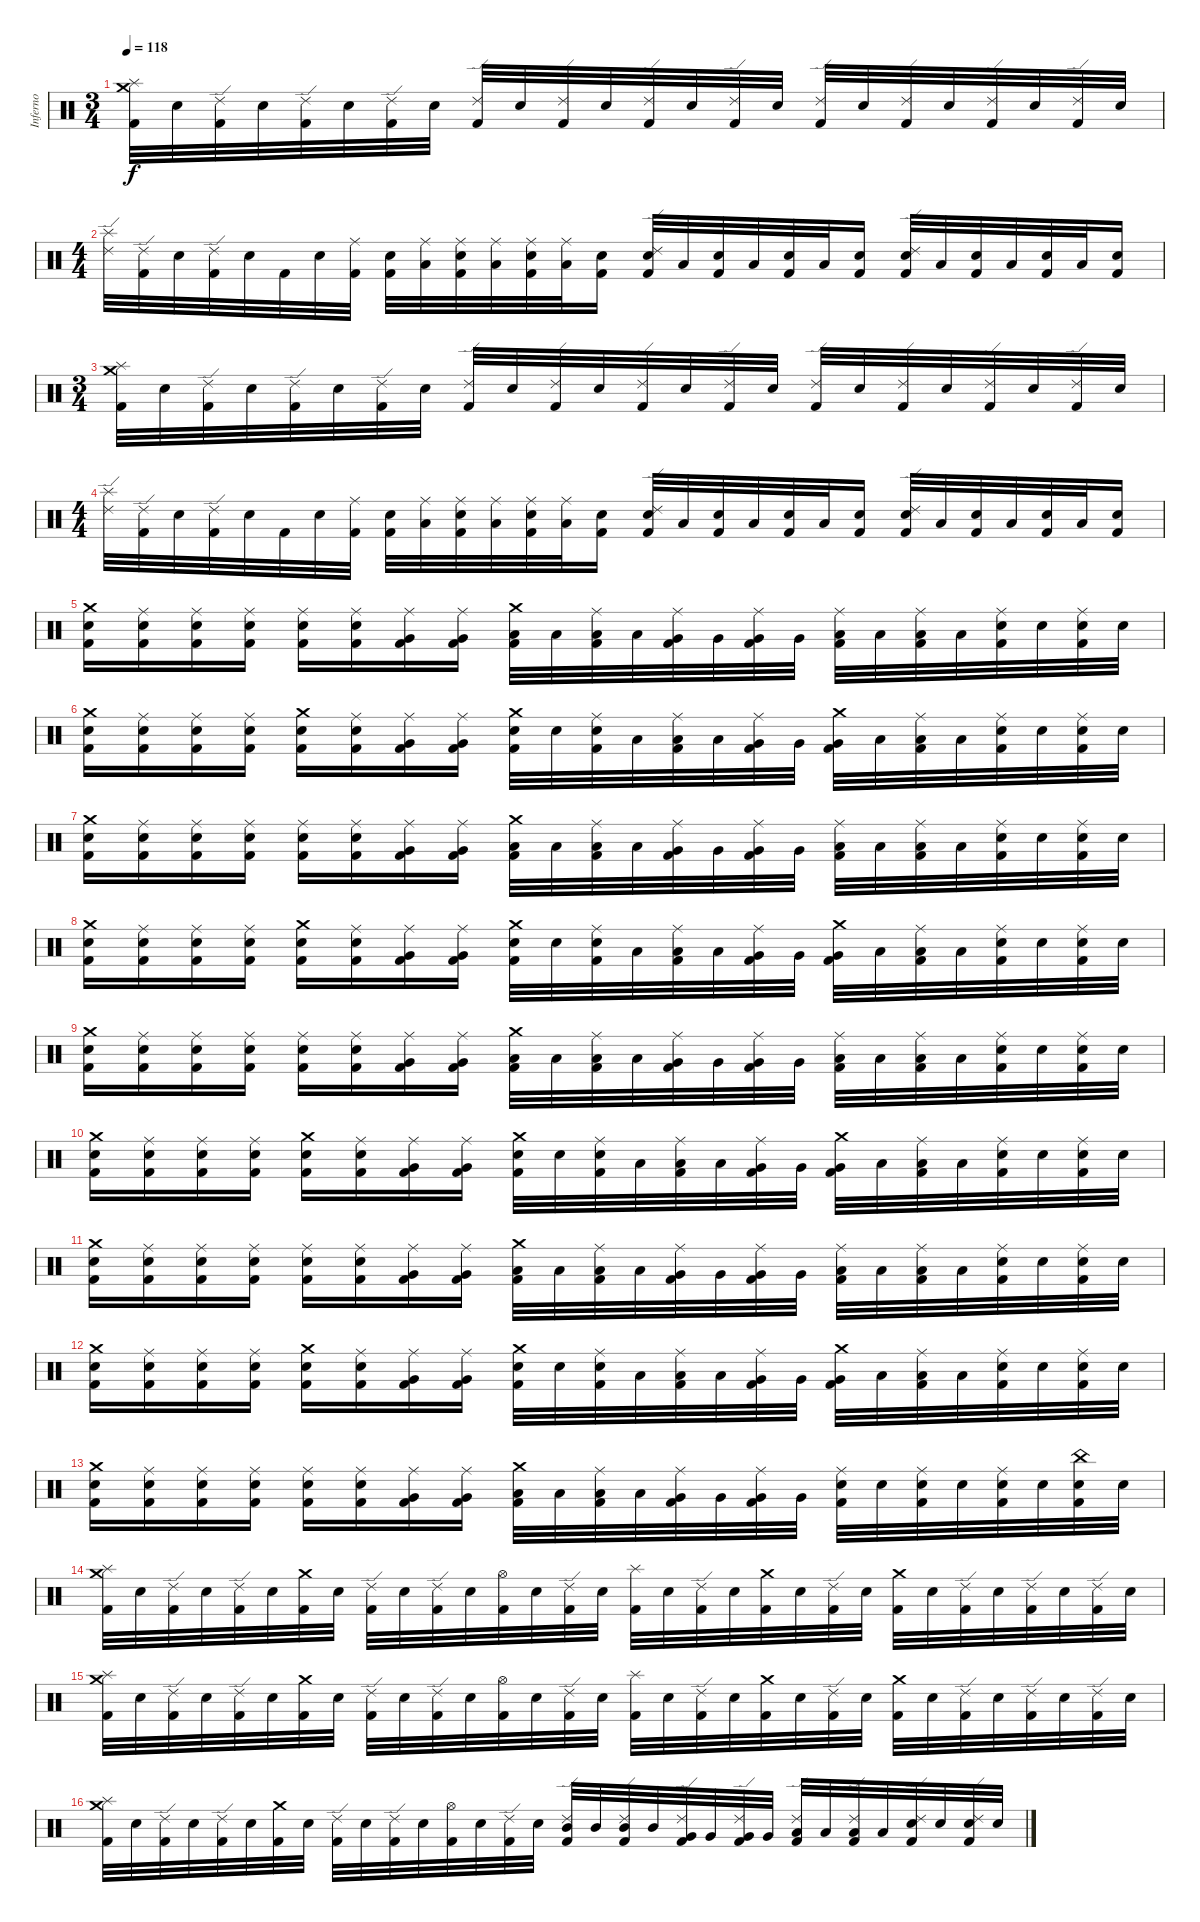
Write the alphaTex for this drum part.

\track ("Inferno" "Inferno") {instrument percussion}
\staff {score}
\articulation defaults
\ts (3 4)
\tempo 118
\clef neutral
\ks c
("Crash medium (hit)" "Splash (hit)" "Kick (hit) 2").32{dy f} "Electric Snare (hit)".32 ("Ride (edge) 2" "Kick (hit) 2").32 "Electric Snare (hit)".32 ("Ride (edge) 2" "Kick (hit) 2").32 "Electric Snare (hit)".32 ("Ride (edge) 2" "Kick (hit) 2").32 "Electric Snare (hit)".32 ("Ride (edge) 2" "Kick (hit) 2").32 "Electric Snare (hit)".32 ("Ride (edge) 2" "Kick (hit) 2").32 "Electric Snare (hit)".32 ("Ride (edge) 2" "Kick (hit) 2").32 "Electric Snare (hit)".32 ("Ride (edge) 2" "Kick (hit) 2").32 "Electric Snare (hit)".32 ("Ride (edge) 2" "Kick (hit) 2").32 "Electric Snare (hit)".32 ("Ride (edge) 2" "Kick (hit) 2").32 "Electric Snare (hit)".32 ("Ride (edge) 2" "Kick (hit) 2").32 "Electric Snare (hit)".32 ("Ride (edge) 2" "Kick (hit) 2").32 "Electric Snare (hit)".32 |
\ts (4 4)
("Ride (edge) 2" "Splash (hit)").32 ("Ride (edge) 2" "Kick (hit) 2").32 "Electric Snare (hit)".32 ("Ride (edge) 2" "Kick (hit) 2").32 "Electric Snare (hit)".32 "Kick (hit) 2".32 "Electric Snare (hit)".32 ("Ride (middle)" "Kick (hit) 2").32 ("Electric Snare (hit)" "Kick (hit) 2").32 ("Ride (middle)" "Low Floor Tom (hit)").32 ("Ride (middle)" "Electric Snare (hit)" "Kick (hit) 2").32 ("Ride (middle)" "Low Floor Tom (hit)").32 ("Ride (middle)" "Electric Snare (hit)" "Kick (hit) 2").32 ("Ride (middle)" "Low Floor Tom (hit)").32 ("Electric Snare (hit)" "Kick (hit) 2").16 ("Ride (edge) 2" "Electric Snare (hit)" "Kick (hit) 2").32 "Low Floor Tom (hit)".32 ("Electric Snare (hit)" "Kick (hit) 2").32 "Low Floor Tom (hit)".32 ("Electric Snare (hit)" "Kick (hit) 2").32 "Low Floor Tom (hit)".32 ("Electric Snare (hit)" "Kick (hit) 2").16 ("Ride (edge) 2" "Electric Snare (hit)" "Kick (hit) 2").32 "Low Floor Tom (hit)".32 ("Electric Snare (hit)" "Kick (hit) 2").32 "Low Floor Tom (hit)".32 ("Electric Snare (hit)" "Kick (hit) 2").32 "Low Floor Tom (hit)".32 ("Electric Snare (hit)" "Kick (hit) 2").16 |
\ts (3 4)
("Crash medium (hit)" "Splash (hit)" "Kick (hit) 2").32 "Electric Snare (hit)".32 ("Ride (edge) 2" "Kick (hit) 2").32 "Electric Snare (hit)".32 ("Ride (edge) 2" "Kick (hit) 2").32 "Electric Snare (hit)".32 ("Ride (edge) 2" "Kick (hit) 2").32 "Electric Snare (hit)".32 ("Ride (edge) 2" "Kick (hit) 2").32 "Electric Snare (hit)".32 ("Ride (edge) 2" "Kick (hit) 2").32 "Electric Snare (hit)".32 ("Ride (edge) 2" "Kick (hit) 2").32 "Electric Snare (hit)".32 ("Ride (edge) 2" "Kick (hit) 2").32 "Electric Snare (hit)".32 ("Ride (edge) 2" "Kick (hit) 2").32 "Electric Snare (hit)".32 ("Ride (edge) 2" "Kick (hit) 2").32 "Electric Snare (hit)".32 ("Ride (edge) 2" "Kick (hit) 2").32 "Electric Snare (hit)".32 ("Ride (edge) 2" "Kick (hit) 2").32 "Electric Snare (hit)".32 |
\ts (4 4)
("Ride (edge) 2" "Splash (hit)").32 ("Ride (edge) 2" "Kick (hit) 2").32 "Electric Snare (hit)".32 ("Ride (edge) 2" "Kick (hit) 2").32 "Electric Snare (hit)".32 "Kick (hit) 2".32 "Electric Snare (hit)".32 ("Ride (middle)" "Kick (hit) 2").32 ("Electric Snare (hit)" "Kick (hit) 2").32 ("Ride (middle)" "Low Floor Tom (hit)").32 ("Ride (middle)" "Electric Snare (hit)" "Kick (hit) 2").32 ("Ride (middle)" "Low Floor Tom (hit)").32 ("Ride (middle)" "Electric Snare (hit)" "Kick (hit) 2").32 ("Ride (middle)" "Low Floor Tom (hit)").32 ("Electric Snare (hit)" "Kick (hit) 2").16 ("Ride (edge) 2" "Electric Snare (hit)" "Kick (hit) 2").32 "Low Floor Tom (hit)".32 ("Electric Snare (hit)" "Kick (hit) 2").32 "Low Floor Tom (hit)".32 ("Electric Snare (hit)" "Kick (hit) 2").32 "Low Floor Tom (hit)".32 ("Electric Snare (hit)" "Kick (hit) 2").16 ("Ride (edge) 2" "Electric Snare (hit)" "Kick (hit) 2").32 "Low Floor Tom (hit)".32 ("Electric Snare (hit)" "Kick (hit) 2").32 "Low Floor Tom (hit)".32 ("Electric Snare (hit)" "Kick (hit) 2").32 "Low Floor Tom (hit)".32 ("Electric Snare (hit)" "Kick (hit) 2").16 |
("Crash medium (hit)" "Electric Snare (hit)" "Kick (hit) 2").16 ("Ride (middle)" "Electric Snare (hit)" "Kick (hit) 2").16 ("Ride (middle)" "Electric Snare (hit)" "Kick (hit) 2").16 ("Ride (middle)" "Electric Snare (hit)" "Kick (hit) 2").16 ("Ride (middle)" "Electric Snare (hit)" "Kick (hit) 2").16 ("Ride (middle)" "Electric Snare (hit)" "Kick (hit) 2").16 ("Ride (middle)" "Very Low Tom (hit)" "Kick (hit) 2").16 ("Ride (middle)" "Very Low Tom (hit)" "Kick (hit) 2").16 ("Crash medium (hit)" "Low Floor Tom (hit)" "Kick (hit) 2").32 "Low Floor Tom (hit)".32 ("Ride (middle)" "Low Floor Tom (hit)" "Kick (hit) 2").32 "Low Floor Tom (hit)".32 ("Ride (middle)" "Very Low Tom (hit)" "Kick (hit) 2").32 "Very Low Tom (hit)".32 ("Ride (middle)" "Very Low Tom (hit)" "Kick (hit) 2").32 "Very Low Tom (hit)".32 ("Ride (middle)" "Low Floor Tom (hit)" "Kick (hit) 2").32 "Low Floor Tom (hit)".32 ("Ride (middle)" "Low Floor Tom (hit)" "Kick (hit) 2").32 "Low Floor Tom (hit)".32 ("Ride (middle)" "Electric Snare (hit)" "Kick (hit) 2").32 "Electric Snare (hit)".32 ("Ride (middle)" "Electric Snare (hit)" "Kick (hit) 2").32 "Electric Snare (hit)".32 |
("Crash medium (hit)" "Electric Snare (hit)" "Kick (hit) 2").16 ("Ride (middle)" "Electric Snare (hit)" "Kick (hit) 2").16 ("Ride (middle)" "Electric Snare (hit)" "Kick (hit) 2").16 ("Ride (middle)" "Electric Snare (hit)" "Kick (hit) 2").16 ("Crash medium (hit)" "Electric Snare (hit)" "Kick (hit) 2").16 ("Ride (middle)" "Electric Snare (hit)" "Kick (hit) 2").16 ("Ride (middle)" "Very Low Tom (hit)" "Kick (hit) 2").16 ("Ride (middle)" "Very Low Tom (hit)" "Kick (hit) 2").16 ("Crash medium (hit)" "Electric Snare (hit)" "Kick (hit) 2").32 "Electric Snare (hit)".32 ("Ride (middle)" "Electric Snare (hit)" "Kick (hit) 2").32 "Low Tom (hit)".32 ("Ride (middle)" "Low Tom (hit)" "Kick (hit) 2").32 "Low Tom (hit)".32 ("Ride (middle)" "Very Low Tom (hit)" "Kick (hit) 2").32 "Very Low Tom (hit)".32 ("Crash medium (hit)" "Very Low Tom (hit)" "Kick (hit) 2").32 "Low Floor Tom (hit)".32 ("Ride (middle)" "Low Floor Tom (hit)" "Kick (hit) 2").32 "Low Floor Tom (hit)".32 ("Ride (middle)" "Electric Snare (hit)" "Kick (hit) 2").32 "Electric Snare (hit)".32 ("Ride (middle)" "Electric Snare (hit)" "Kick (hit) 2").32 "Electric Snare (hit)".32 |
("Crash medium (hit)" "Electric Snare (hit)" "Kick (hit) 2").16 ("Ride (middle)" "Electric Snare (hit)" "Kick (hit) 2").16 ("Ride (middle)" "Electric Snare (hit)" "Kick (hit) 2").16 ("Ride (middle)" "Electric Snare (hit)" "Kick (hit) 2").16 ("Ride (middle)" "Electric Snare (hit)" "Kick (hit) 2").16 ("Ride (middle)" "Electric Snare (hit)" "Kick (hit) 2").16 ("Ride (middle)" "Very Low Tom (hit)" "Kick (hit) 2").16 ("Ride (middle)" "Very Low Tom (hit)" "Kick (hit) 2").16 ("Crash medium (hit)" "Low Floor Tom (hit)" "Kick (hit) 2").32 "Low Floor Tom (hit)".32 ("Ride (middle)" "Low Floor Tom (hit)" "Kick (hit) 2").32 "Low Floor Tom (hit)".32 ("Ride (middle)" "Very Low Tom (hit)" "Kick (hit) 2").32 "Very Low Tom (hit)".32 ("Ride (middle)" "Very Low Tom (hit)" "Kick (hit) 2").32 "Very Low Tom (hit)".32 ("Ride (middle)" "Low Floor Tom (hit)" "Kick (hit) 2").32 "Low Floor Tom (hit)".32 ("Ride (middle)" "Low Floor Tom (hit)" "Kick (hit) 2").32 "Low Floor Tom (hit)".32 ("Ride (middle)" "Electric Snare (hit)" "Kick (hit) 2").32 "Electric Snare (hit)".32 ("Ride (middle)" "Electric Snare (hit)" "Kick (hit) 2").32 "Electric Snare (hit)".32 |
("Crash medium (hit)" "Electric Snare (hit)" "Kick (hit) 2").16 ("Ride (middle)" "Electric Snare (hit)" "Kick (hit) 2").16 ("Ride (middle)" "Electric Snare (hit)" "Kick (hit) 2").16 ("Ride (middle)" "Electric Snare (hit)" "Kick (hit) 2").16 ("Crash medium (hit)" "Electric Snare (hit)" "Kick (hit) 2").16 ("Ride (middle)" "Electric Snare (hit)" "Kick (hit) 2").16 ("Ride (middle)" "Very Low Tom (hit)" "Kick (hit) 2").16 ("Ride (middle)" "Very Low Tom (hit)" "Kick (hit) 2").16 ("Crash medium (hit)" "Electric Snare (hit)" "Kick (hit) 2").32 "Electric Snare (hit)".32 ("Ride (middle)" "Electric Snare (hit)" "Kick (hit) 2").32 "Low Tom (hit)".32 ("Ride (middle)" "Low Tom (hit)" "Kick (hit) 2").32 "Low Tom (hit)".32 ("Ride (middle)" "Very Low Tom (hit)" "Kick (hit) 2").32 "Very Low Tom (hit)".32 ("Crash medium (hit)" "Very Low Tom (hit)" "Kick (hit) 2").32 "Low Floor Tom (hit)".32 ("Ride (middle)" "Low Floor Tom (hit)" "Kick (hit) 2").32 "Low Floor Tom (hit)".32 ("Ride (middle)" "Electric Snare (hit)" "Kick (hit) 2").32 "Electric Snare (hit)".32 ("Ride (middle)" "Electric Snare (hit)" "Kick (hit) 2").32 "Electric Snare (hit)".32 |
("Crash medium (hit)" "Electric Snare (hit)" "Kick (hit) 2").16 ("Ride (middle)" "Electric Snare (hit)" "Kick (hit) 2").16 ("Ride (middle)" "Electric Snare (hit)" "Kick (hit) 2").16 ("Ride (middle)" "Electric Snare (hit)" "Kick (hit) 2").16 ("Ride (middle)" "Electric Snare (hit)" "Kick (hit) 2").16 ("Ride (middle)" "Electric Snare (hit)" "Kick (hit) 2").16 ("Ride (middle)" "Very Low Tom (hit)" "Kick (hit) 2").16 ("Ride (middle)" "Very Low Tom (hit)" "Kick (hit) 2").16 ("Crash medium (hit)" "Low Floor Tom (hit)" "Kick (hit) 2").32 "Low Floor Tom (hit)".32 ("Ride (middle)" "Low Floor Tom (hit)" "Kick (hit) 2").32 "Low Floor Tom (hit)".32 ("Ride (middle)" "Very Low Tom (hit)" "Kick (hit) 2").32 "Very Low Tom (hit)".32 ("Ride (middle)" "Very Low Tom (hit)" "Kick (hit) 2").32 "Very Low Tom (hit)".32 ("Ride (middle)" "Low Floor Tom (hit)" "Kick (hit) 2").32 "Low Floor Tom (hit)".32 ("Ride (middle)" "Low Floor Tom (hit)" "Kick (hit) 2").32 "Low Floor Tom (hit)".32 ("Ride (middle)" "Electric Snare (hit)" "Kick (hit) 2").32 "Electric Snare (hit)".32 ("Ride (middle)" "Electric Snare (hit)" "Kick (hit) 2").32 "Electric Snare (hit)".32 |
("Crash medium (hit)" "Electric Snare (hit)" "Kick (hit) 2").16 ("Ride (middle)" "Electric Snare (hit)" "Kick (hit) 2").16 ("Ride (middle)" "Electric Snare (hit)" "Kick (hit) 2").16 ("Ride (middle)" "Electric Snare (hit)" "Kick (hit) 2").16 ("Crash medium (hit)" "Electric Snare (hit)" "Kick (hit) 2").16 ("Ride (middle)" "Electric Snare (hit)" "Kick (hit) 2").16 ("Ride (middle)" "Very Low Tom (hit)" "Kick (hit) 2").16 ("Ride (middle)" "Very Low Tom (hit)" "Kick (hit) 2").16 ("Crash medium (hit)" "Electric Snare (hit)" "Kick (hit) 2").32 "Electric Snare (hit)".32 ("Ride (middle)" "Electric Snare (hit)" "Kick (hit) 2").32 "Low Tom (hit)".32 ("Ride (middle)" "Low Tom (hit)" "Kick (hit) 2").32 "Low Tom (hit)".32 ("Ride (middle)" "Very Low Tom (hit)" "Kick (hit) 2").32 "Very Low Tom (hit)".32 ("Crash medium (hit)" "Very Low Tom (hit)" "Kick (hit) 2").32 "Low Floor Tom (hit)".32 ("Ride (middle)" "Low Floor Tom (hit)" "Kick (hit) 2").32 "Low Floor Tom (hit)".32 ("Ride (middle)" "Electric Snare (hit)" "Kick (hit) 2").32 "Electric Snare (hit)".32 ("Ride (middle)" "Electric Snare (hit)" "Kick (hit) 2").32 "Electric Snare (hit)".32 |
("Crash medium (hit)" "Electric Snare (hit)" "Kick (hit) 2").16 ("Ride (middle)" "Electric Snare (hit)" "Kick (hit) 2").16 ("Ride (middle)" "Electric Snare (hit)" "Kick (hit) 2").16 ("Ride (middle)" "Electric Snare (hit)" "Kick (hit) 2").16 ("Ride (middle)" "Electric Snare (hit)" "Kick (hit) 2").16 ("Ride (middle)" "Electric Snare (hit)" "Kick (hit) 2").16 ("Ride (middle)" "Very Low Tom (hit)" "Kick (hit) 2").16 ("Ride (middle)" "Very Low Tom (hit)" "Kick (hit) 2").16 ("Crash medium (hit)" "Low Floor Tom (hit)" "Kick (hit) 2").32 "Low Floor Tom (hit)".32 ("Ride (middle)" "Low Floor Tom (hit)" "Kick (hit) 2").32 "Low Floor Tom (hit)".32 ("Ride (middle)" "Very Low Tom (hit)" "Kick (hit) 2").32 "Very Low Tom (hit)".32 ("Ride (middle)" "Very Low Tom (hit)" "Kick (hit) 2").32 "Very Low Tom (hit)".32 ("Ride (middle)" "Low Floor Tom (hit)" "Kick (hit) 2").32 "Low Floor Tom (hit)".32 ("Ride (middle)" "Low Floor Tom (hit)" "Kick (hit) 2").32 "Low Floor Tom (hit)".32 ("Ride (middle)" "Electric Snare (hit)" "Kick (hit) 2").32 "Electric Snare (hit)".32 ("Ride (middle)" "Electric Snare (hit)" "Kick (hit) 2").32 "Electric Snare (hit)".32 |
("Crash medium (hit)" "Electric Snare (hit)" "Kick (hit) 2").16 ("Ride (middle)" "Electric Snare (hit)" "Kick (hit) 2").16 ("Ride (middle)" "Electric Snare (hit)" "Kick (hit) 2").16 ("Ride (middle)" "Electric Snare (hit)" "Kick (hit) 2").16 ("Crash medium (hit)" "Electric Snare (hit)" "Kick (hit) 2").16 ("Ride (middle)" "Electric Snare (hit)" "Kick (hit) 2").16 ("Ride (middle)" "Very Low Tom (hit)" "Kick (hit) 2").16 ("Ride (middle)" "Very Low Tom (hit)" "Kick (hit) 2").16 ("Crash medium (hit)" "Electric Snare (hit)" "Kick (hit) 2").32 "Electric Snare (hit)".32 ("Ride (middle)" "Electric Snare (hit)" "Kick (hit) 2").32 "Low Tom (hit)".32 ("Ride (middle)" "Low Tom (hit)" "Kick (hit) 2").32 "Low Tom (hit)".32 ("Ride (middle)" "Very Low Tom (hit)" "Kick (hit) 2").32 "Very Low Tom (hit)".32 ("Crash medium (hit)" "Very Low Tom (hit)" "Kick (hit) 2").32 "Low Floor Tom (hit)".32 ("Ride (middle)" "Low Floor Tom (hit)" "Kick (hit) 2").32 "Low Floor Tom (hit)".32 ("Ride (middle)" "Electric Snare (hit)" "Kick (hit) 2").32 "Electric Snare (hit)".32 ("Ride (middle)" "Electric Snare (hit)" "Kick (hit) 2").32 "Electric Snare (hit)".32 |
("Crash medium (hit)" "Electric Snare (hit)" "Kick (hit) 2").16 ("Ride (middle)" "Electric Snare (hit)" "Kick (hit) 2").16 ("Ride (middle)" "Electric Snare (hit)" "Kick (hit) 2").16 ("Ride (middle)" "Electric Snare (hit)" "Kick (hit) 2").16 ("Ride (middle)" "Electric Snare (hit)" "Kick (hit) 2").16 ("Ride (middle)" "Electric Snare (hit)" "Kick (hit) 2").16 ("Ride (middle)" "Very Low Tom (hit)" "Kick (hit) 2").16 ("Ride (middle)" "Very Low Tom (hit)" "Kick (hit) 2").16 ("Crash medium (hit)" "Low Floor Tom (hit)" "Kick (hit) 2").32 "Low Floor Tom (hit)".32 ("Ride (middle)" "Low Floor Tom (hit)" "Kick (hit) 2").32 "Low Floor Tom (hit)".32 ("Ride (middle)" "Very Low Tom (hit)" "Kick (hit) 2").32 "Very Low Tom (hit)".32 ("Ride (middle)" "Very Low Tom (hit)" "Kick (hit) 2").32 "Very Low Tom (hit)".32 ("Ride (middle)" "Electric Snare (hit)" "Kick (hit) 2").32 "Electric Snare (hit)".32 ("Ride (middle)" "Electric Snare (hit)" "Kick (hit) 2").32 "Electric Snare (hit)".32 ("Ride (middle)" "Electric Snare (hit)" "Kick (hit) 2").32 "Electric Snare (hit)".32 ("China (hit)" "Electric Snare (hit)" "Kick (hit) 2").32 "Electric Snare (hit)".32 |
("Crash medium (hit)" "Splash (hit)" "Kick (hit) 2").32 "Electric Snare (hit)".32 ("Ride (edge) 2" "Kick (hit) 2").32 "Electric Snare (hit)".32 ("Ride (edge) 2" "Kick (hit) 2").32 "Electric Snare (hit)".32 ("Crash medium (hit)" "Kick (hit) 2").32 "Electric Snare (hit)".32 ("Ride (edge) 2" "Kick (hit) 2").32 "Electric Snare (hit)".32 ("Ride (edge) 2" "Kick (hit) 2").32 "Electric Snare (hit)".32 ("Hi-Hat (open)" "Kick (hit) 2").32 "Electric Snare (hit)".32 ("Ride (edge) 2" "Kick (hit) 2").32 "Electric Snare (hit)".32 ("Splash (hit)" "Kick (hit) 2").32 "Electric Snare (hit)".32 ("Ride (edge) 2" "Kick (hit) 2").32 "Electric Snare (hit)".32 ("Crash medium (hit)" "Kick (hit) 2").32 "Electric Snare (hit)".32 ("Ride (edge) 2" "Kick (hit) 2").32 "Electric Snare (hit)".32 ("Crash medium (hit)" "Kick (hit) 2").32 "Electric Snare (hit)".32 ("Ride (edge) 2" "Kick (hit) 2").32 "Electric Snare (hit)".32 ("Ride (edge) 2" "Kick (hit) 2").32 "Electric Snare (hit)".32 ("Ride (edge) 2" "Kick (hit) 2").32 "Electric Snare (hit)".32 |
("Crash medium (hit)" "Splash (hit)" "Kick (hit) 2").32 "Electric Snare (hit)".32 ("Ride (edge) 2" "Kick (hit) 2").32 "Electric Snare (hit)".32 ("Ride (edge) 2" "Kick (hit) 2").32 "Electric Snare (hit)".32 ("Crash medium (hit)" "Kick (hit) 2").32 "Electric Snare (hit)".32 ("Ride (edge) 2" "Kick (hit) 2").32 "Electric Snare (hit)".32 ("Ride (edge) 2" "Kick (hit) 2").32 "Electric Snare (hit)".32 ("Hi-Hat (open)" "Kick (hit) 2").32 "Electric Snare (hit)".32 ("Ride (edge) 2" "Kick (hit) 2").32 "Electric Snare (hit)".32 ("Splash (hit)" "Kick (hit) 2").32 "Electric Snare (hit)".32 ("Ride (edge) 2" "Kick (hit) 2").32 "Electric Snare (hit)".32 ("Crash medium (hit)" "Kick (hit) 2").32 "Electric Snare (hit)".32 ("Ride (edge) 2" "Kick (hit) 2").32 "Electric Snare (hit)".32 ("Crash medium (hit)" "Kick (hit) 2").32 "Electric Snare (hit)".32 ("Ride (edge) 2" "Kick (hit) 2").32 "Electric Snare (hit)".32 ("Ride (edge) 2" "Kick (hit) 2").32 "Electric Snare (hit)".32 ("Ride (edge) 2" "Kick (hit) 2").32 "Electric Snare (hit)".32 |
("Crash medium (hit)" "Splash (hit)" "Kick (hit) 2").32 "Electric Snare (hit)".32 ("Ride (edge) 2" "Kick (hit) 2").32 "Electric Snare (hit)".32 ("Ride (edge) 2" "Kick (hit) 2").32 "Electric Snare (hit)".32 ("Crash medium (hit)" "Kick (hit) 2").32 "Electric Snare (hit)".32 ("Ride (edge) 2" "Kick (hit) 2").32 "Electric Snare (hit)".32 ("Ride (edge) 2" "Kick (hit) 2").32 "Electric Snare (hit)".32 ("Hi-Hat (open)" "Kick (hit) 2").32 "Electric Snare (hit)".32 ("Ride (edge) 2" "Kick (hit) 2").32 "Electric Snare (hit)".32 ("Ride (edge) 2" "Mid Tom (hit)" "Kick (hit) 2").32 "Mid Tom (hit)".32 ("Ride (edge) 2" "Mid Tom (hit)" "Kick (hit) 2").32 "Mid Tom (hit)".32 ("Ride (edge) 2" "Very Low Tom (hit)" "Kick (hit) 2").32 "Very Low Tom (hit)".32 ("Ride (edge) 2" "Very Low Tom (hit)" "Kick (hit) 2").32 "Very Low Tom (hit)".32 ("Ride (edge) 2" "Low Floor Tom (hit)" "Kick (hit) 2").32 "Low Floor Tom (hit)".32 ("Ride (edge) 2" "Low Floor Tom (hit)" "Kick (hit) 2").32 "Low Floor Tom (hit)".32 ("Ride (edge) 2" "Electric Snare (hit)" "Kick (hit) 2").32 "Electric Snare (hit)".32 ("Ride (edge) 2" "Electric Snare (hit)" "Kick (hit) 2").32 "Electric Snare (hit)".32
